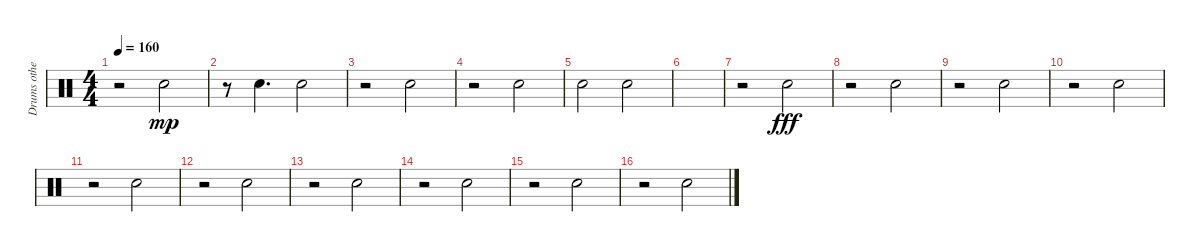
\track ("Drums others" "Drums othe") {instrument percussion}
\staff {score}
\articulation defaults
\ts (4 4)
\tempo 160
\clef neutral
\ks c
r.2{dy mp} "Snare (hit) 2".2 |
r.8 "Snare (hit) 2".4{d} "Snare (hit) 2".2 |
r.2 "Snare (hit) 2".2 |
r.2 "Snare (hit) 2".2 |
"Snare (hit) 2".2 "Snare (hit) 2".2 |
|
r.2 "Snare (hit) 2".2{dy fff} |
r.2 "Snare (hit) 2".2 |
r.2 "Snare (hit) 2".2 |
r.2 "Snare (hit) 2".2 |
r.2 "Snare (hit) 2".2 |
r.2 "Snare (hit) 2".2 |
r.2 "Snare (hit) 2".2 |
r.2 "Snare (hit) 2".2 |
r.2 "Snare (hit) 2".2 |
r.2 "Snare (hit) 2".2
